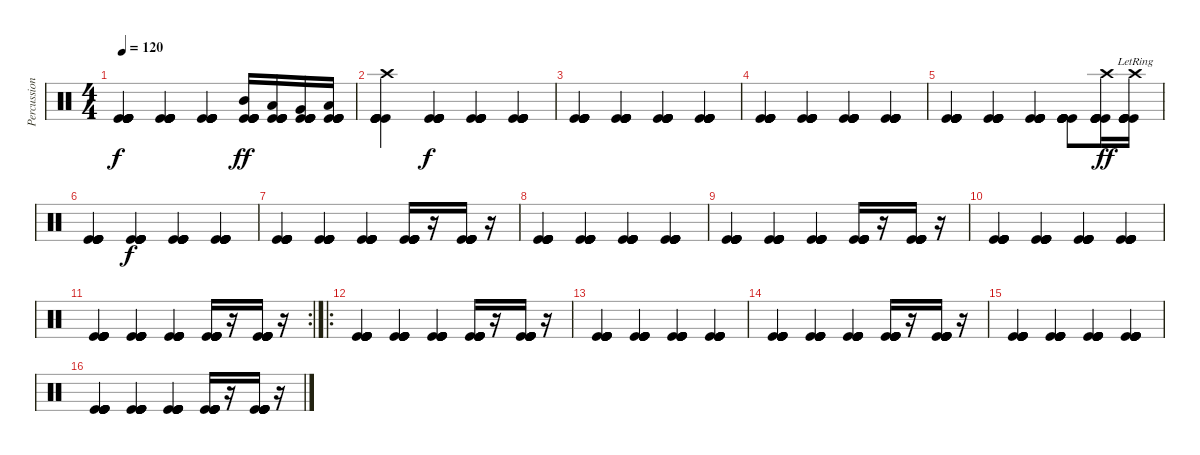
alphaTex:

\track ("Percussion" "Percussion") {instrument percussion}
\staff {score}
\articulation defaults
\ts (4 4)
\tempo 120
\clef neutral
\ks c
("Kick (hit)" "Kick (hit)" "Kick (hit)" "Kick (hit)" "Kick (hit)" "Kick (hit)").4{dy f} ("Kick (hit)" "Kick (hit)" "Kick (hit)" "Kick (hit)" "Kick (hit)" "Kick (hit)").4 ("Kick (hit)" "Kick (hit)" "Kick (hit)" "Kick (hit)" "Kick (hit)" "Kick (hit)").4 ("Mid Tom (hit)" "Kick (hit)" "Kick (hit)" "Kick (hit)" "Kick (hit)" "Kick (hit)").16{dy ff} ("Low Tom (hit)" "Kick (hit)" "Kick (hit)" "Kick (hit)" "Kick (hit)" "Kick (hit)").16 ("Very Low Tom (hit)" "Kick (hit)" "Kick (hit)" "Kick (hit)" "Kick (hit)" "Kick (hit)").16 ("Low Floor Tom (hit)" "Kick (hit)" "Kick (hit)" "Kick (hit)" "Kick (hit)" "Kick (hit)").16 |
("Crash high (hit)" "Kick (hit)" "Kick (hit)" "Kick (hit)" "Kick (hit)" "Kick (hit)").4 ("Kick (hit)" "Kick (hit)" "Kick (hit)" "Kick (hit)" "Kick (hit)" "Kick (hit)").4{dy f} ("Kick (hit)" "Kick (hit)" "Kick (hit)" "Kick (hit)" "Kick (hit)" "Kick (hit)").4 ("Kick (hit)" "Kick (hit)" "Kick (hit)" "Kick (hit)" "Kick (hit)" "Kick (hit)").4 |
("Kick (hit)" "Kick (hit)" "Kick (hit)" "Kick (hit)" "Kick (hit)" "Kick (hit)").4 ("Kick (hit)" "Kick (hit)" "Kick (hit)" "Kick (hit)" "Kick (hit)" "Kick (hit)").4 ("Kick (hit)" "Kick (hit)" "Kick (hit)" "Kick (hit)" "Kick (hit)" "Kick (hit)").4 ("Kick (hit)" "Kick (hit)" "Kick (hit)" "Kick (hit)" "Kick (hit)" "Kick (hit)").4 |
("Kick (hit)" "Kick (hit)" "Kick (hit)" "Kick (hit)" "Kick (hit)" "Kick (hit)").4 ("Kick (hit)" "Kick (hit)" "Kick (hit)" "Kick (hit)" "Kick (hit)" "Kick (hit)").4 ("Kick (hit)" "Kick (hit)" "Kick (hit)" "Kick (hit)" "Kick (hit)" "Kick (hit)").4 ("Kick (hit)" "Kick (hit)" "Kick (hit)" "Kick (hit)" "Kick (hit)" "Kick (hit)").4 |
("Kick (hit)" "Kick (hit)" "Kick (hit)" "Kick (hit)" "Kick (hit)" "Kick (hit)").4 ("Kick (hit)" "Kick (hit)" "Kick (hit)" "Kick (hit)" "Kick (hit)" "Kick (hit)").4 ("Kick (hit)" "Kick (hit)" "Kick (hit)" "Kick (hit)" "Kick (hit)" "Kick (hit)").4 ("Kick (hit)" "Kick (hit)" "Kick (hit)" "Kick (hit)" "Kick (hit)" "Kick (hit)").8 ("Crash high (hit)" "Kick (hit)" "Kick (hit)" "Kick (hit)" "Kick (hit)" "Kick (hit)").16{dy ff} ("Crash high (hit)"{lr} "Kick (hit)" "Kick (hit)" "Kick (hit)" "Kick (hit)" "Kick (hit)").16 |
("Kick (hit)" "Kick (hit)" "Kick (hit)" "Kick (hit)" "Kick (hit)").4 ("Kick (hit)" "Kick (hit)" "Kick (hit)" "Kick (hit)" "Kick (hit)" "Kick (hit)").4{dy f} ("Kick (hit)" "Kick (hit)" "Kick (hit)" "Kick (hit)" "Kick (hit)" "Kick (hit)").4 ("Kick (hit)" "Kick (hit)" "Kick (hit)" "Kick (hit)" "Kick (hit)" "Kick (hit)").4 |
("Kick (hit)" "Kick (hit)" "Kick (hit)" "Kick (hit)" "Kick (hit)" "Kick (hit)").4 ("Kick (hit)" "Kick (hit)" "Kick (hit)" "Kick (hit)" "Kick (hit)" "Kick (hit)").4 ("Kick (hit)" "Kick (hit)" "Kick (hit)" "Kick (hit)" "Kick (hit)" "Kick (hit)").4 ("Kick (hit)" "Kick (hit)" "Kick (hit)" "Kick (hit)" "Kick (hit)" "Kick (hit)").16 r.16 ("Kick (hit)" "Kick (hit)" "Kick (hit)" "Kick (hit)" "Kick (hit)" "Kick (hit)").16 r.16 |
("Kick (hit)" "Kick (hit)" "Kick (hit)" "Kick (hit)" "Kick (hit)" "Kick (hit)").4 ("Kick (hit)" "Kick (hit)" "Kick (hit)" "Kick (hit)" "Kick (hit)" "Kick (hit)").4 ("Kick (hit)" "Kick (hit)" "Kick (hit)" "Kick (hit)" "Kick (hit)" "Kick (hit)").4 ("Kick (hit)" "Kick (hit)" "Kick (hit)" "Kick (hit)" "Kick (hit)" "Kick (hit)").4 |
("Kick (hit)" "Kick (hit)" "Kick (hit)" "Kick (hit)" "Kick (hit)" "Kick (hit)").4 ("Kick (hit)" "Kick (hit)" "Kick (hit)" "Kick (hit)" "Kick (hit)" "Kick (hit)").4 ("Kick (hit)" "Kick (hit)" "Kick (hit)" "Kick (hit)" "Kick (hit)" "Kick (hit)").4 ("Kick (hit)" "Kick (hit)" "Kick (hit)" "Kick (hit)" "Kick (hit)" "Kick (hit)").16 r.16 ("Kick (hit)" "Kick (hit)" "Kick (hit)" "Kick (hit)" "Kick (hit)" "Kick (hit)").16 r.16 |
("Kick (hit)" "Kick (hit)" "Kick (hit)" "Kick (hit)" "Kick (hit)" "Kick (hit)").4 ("Kick (hit)" "Kick (hit)" "Kick (hit)" "Kick (hit)" "Kick (hit)" "Kick (hit)").4 ("Kick (hit)" "Kick (hit)" "Kick (hit)" "Kick (hit)" "Kick (hit)" "Kick (hit)").4 ("Kick (hit)" "Kick (hit)" "Kick (hit)" "Kick (hit)" "Kick (hit)" "Kick (hit)").4 |
\rc 2
("Kick (hit)" "Kick (hit)" "Kick (hit)" "Kick (hit)" "Kick (hit)" "Kick (hit)").4 ("Kick (hit)" "Kick (hit)" "Kick (hit)" "Kick (hit)" "Kick (hit)" "Kick (hit)").4 ("Kick (hit)" "Kick (hit)" "Kick (hit)" "Kick (hit)" "Kick (hit)" "Kick (hit)").4 ("Kick (hit)" "Kick (hit)" "Kick (hit)" "Kick (hit)" "Kick (hit)" "Kick (hit)").16 r.16 ("Kick (hit)" "Kick (hit)" "Kick (hit)" "Kick (hit)" "Kick (hit)" "Kick (hit)").16 r.16 |
\ro
("Kick (hit)" "Kick (hit)" "Kick (hit)" "Kick (hit)" "Kick (hit)" "Kick (hit)").4 ("Kick (hit)" "Kick (hit)" "Kick (hit)" "Kick (hit)" "Kick (hit)" "Kick (hit)").4 ("Kick (hit)" "Kick (hit)" "Kick (hit)" "Kick (hit)" "Kick (hit)" "Kick (hit)").4 ("Kick (hit)" "Kick (hit)" "Kick (hit)" "Kick (hit)" "Kick (hit)" "Kick (hit)").16 r.16 ("Kick (hit)" "Kick (hit)" "Kick (hit)" "Kick (hit)" "Kick (hit)" "Kick (hit)").16 r.16 |
("Kick (hit)" "Kick (hit)" "Kick (hit)" "Kick (hit)" "Kick (hit)" "Kick (hit)").4 ("Kick (hit)" "Kick (hit)" "Kick (hit)" "Kick (hit)" "Kick (hit)" "Kick (hit)").4 ("Kick (hit)" "Kick (hit)" "Kick (hit)" "Kick (hit)" "Kick (hit)" "Kick (hit)").4 ("Kick (hit)" "Kick (hit)" "Kick (hit)" "Kick (hit)" "Kick (hit)" "Kick (hit)").4 |
("Kick (hit)" "Kick (hit)" "Kick (hit)" "Kick (hit)" "Kick (hit)" "Kick (hit)").4 ("Kick (hit)" "Kick (hit)" "Kick (hit)" "Kick (hit)" "Kick (hit)" "Kick (hit)").4 ("Kick (hit)" "Kick (hit)" "Kick (hit)" "Kick (hit)" "Kick (hit)" "Kick (hit)").4 ("Kick (hit)" "Kick (hit)" "Kick (hit)" "Kick (hit)" "Kick (hit)" "Kick (hit)").16 r.16 ("Kick (hit)" "Kick (hit)" "Kick (hit)" "Kick (hit)" "Kick (hit)" "Kick (hit)").16 r.16 |
("Kick (hit)" "Kick (hit)" "Kick (hit)" "Kick (hit)" "Kick (hit)" "Kick (hit)").4 ("Kick (hit)" "Kick (hit)" "Kick (hit)" "Kick (hit)" "Kick (hit)" "Kick (hit)").4 ("Kick (hit)" "Kick (hit)" "Kick (hit)" "Kick (hit)" "Kick (hit)" "Kick (hit)").4 ("Kick (hit)" "Kick (hit)" "Kick (hit)" "Kick (hit)" "Kick (hit)" "Kick (hit)").4 |
("Kick (hit)" "Kick (hit)" "Kick (hit)" "Kick (hit)" "Kick (hit)" "Kick (hit)").4 ("Kick (hit)" "Kick (hit)" "Kick (hit)" "Kick (hit)" "Kick (hit)" "Kick (hit)").4 ("Kick (hit)" "Kick (hit)" "Kick (hit)" "Kick (hit)" "Kick (hit)" "Kick (hit)").4 ("Kick (hit)" "Kick (hit)" "Kick (hit)" "Kick (hit)" "Kick (hit)" "Kick (hit)").16 r.16 ("Kick (hit)" "Kick (hit)" "Kick (hit)" "Kick (hit)" "Kick (hit)" "Kick (hit)").16 r.16
